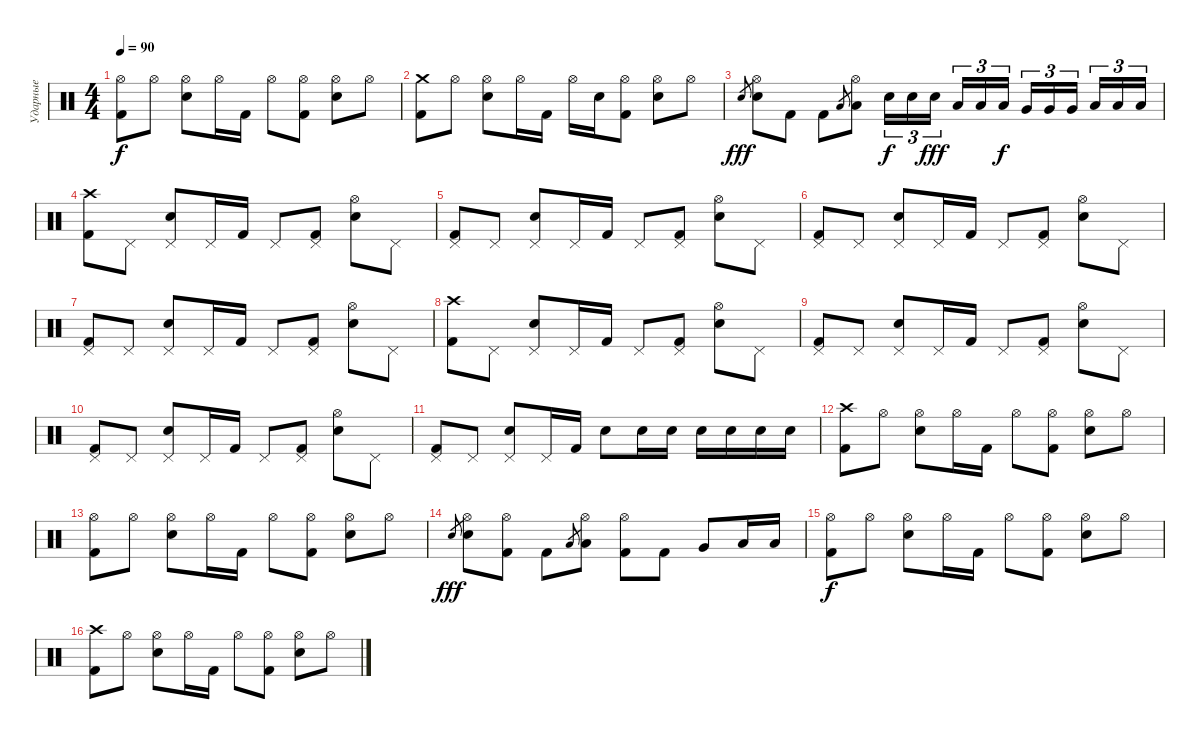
\track ("Ударные" "Ударные") {instrument percussion}
\staff {score}
\articulation defaults
\ts (4 4)
\tempo 90
\clef neutral
\ks c
("Hi-Hat (open)" "Kick (hit) 2").8{dy f} "Hi-Hat (open)".8 ("Hi-Hat (open)" "Snare (hit) 2").8 "Hi-Hat (open)".16 "Kick (hit) 2".16 "Hi-Hat (open)".8 ("Hi-Hat (open)" "Kick (hit) 2").8 ("Hi-Hat (open)" "Snare (hit) 2").8 "Hi-Hat (open)".8 |
("Crash medium (hit)" "Kick (hit) 2").8 "Hi-Hat (open)".8 ("Hi-Hat (open)" "Snare (hit) 2").8 "Hi-Hat (open)".16 "Kick (hit) 2".16 "Hi-Hat (open)".16 "Snare (hit) 2".16 ("Hi-Hat (open)" "Kick (hit) 2").8 ("Hi-Hat (open)" "Snare (hit) 2").8 "Hi-Hat (open)".8 |
"Snare (hit) 2".8{gr dy fff} ("Hi-Hat (open)" "Snare (hit) 2").8 "Kick (hit) 2".8 "Kick (hit) 2".8 "Low Tom (hit)".8{gr} ("Hi-Hat (open)" "Low Tom (hit)").8 "Snare (hit) 2".16{tu (3 2) dy f} "Snare (hit) 2".16{tu (3 2)} "Snare (hit) 2".16{tu (3 2) dy fff beam splitsecondary} "Low Tom (hit)".16{tu (3 2)} "Low Tom (hit)".16{tu (3 2)} "Low Tom (hit)".16{tu (3 2) dy f} "Very Low Tom (hit)".16{tu (3 2)} "Very Low Tom (hit)".16{tu (3 2)} "Very Low Tom (hit)".16{tu (3 2) beam splitsecondary} "Low Floor Tom (hit)".16{tu (3 2)} "Low Floor Tom (hit)".16{tu (3 2)} "Low Floor Tom (hit)".16{tu (3 2)} |
("Crash high (hit)" "Kick (hit) 2").8 "Pedal Hi-Hat (hit)".8 ("Pedal Hi-Hat (hit)" "Snare (hit) 2").8 "Pedal Hi-Hat (hit)".16 "Kick (hit) 2".16 "Pedal Hi-Hat (hit)".8 ("Pedal Hi-Hat (hit)" "Kick (hit) 2").8 ("Hi-Hat (open)" "Snare (hit) 2").8 "Pedal Hi-Hat (hit)".8 |
("Pedal Hi-Hat (hit)" "Kick (hit) 2").8 "Pedal Hi-Hat (hit)".8 ("Pedal Hi-Hat (hit)" "Snare (hit) 2").8 "Pedal Hi-Hat (hit)".16 "Kick (hit) 2".16 "Pedal Hi-Hat (hit)".8 ("Pedal Hi-Hat (hit)" "Kick (hit) 2").8 ("Hi-Hat (open)" "Snare (hit) 2").8 "Pedal Hi-Hat (hit)".8 |
("Pedal Hi-Hat (hit)" "Kick (hit) 2").8 "Pedal Hi-Hat (hit)".8 ("Pedal Hi-Hat (hit)" "Snare (hit) 2").8 "Pedal Hi-Hat (hit)".16 "Kick (hit) 2".16 "Pedal Hi-Hat (hit)".8 ("Pedal Hi-Hat (hit)" "Kick (hit) 2").8 ("Hi-Hat (open)" "Snare (hit) 2").8 "Pedal Hi-Hat (hit)".8 |
("Pedal Hi-Hat (hit)" "Kick (hit) 2").8 "Pedal Hi-Hat (hit)".8 ("Pedal Hi-Hat (hit)" "Snare (hit) 2").8 "Pedal Hi-Hat (hit)".16 "Kick (hit) 2".16 "Pedal Hi-Hat (hit)".8 ("Pedal Hi-Hat (hit)" "Kick (hit) 2").8 ("Hi-Hat (open)" "Snare (hit) 2").8 "Pedal Hi-Hat (hit)".8 |
("Crash high (hit)" "Kick (hit) 2").8 "Pedal Hi-Hat (hit)".8 ("Pedal Hi-Hat (hit)" "Snare (hit) 2").8 "Pedal Hi-Hat (hit)".16 "Kick (hit) 2".16 "Pedal Hi-Hat (hit)".8 ("Pedal Hi-Hat (hit)" "Kick (hit) 2").8 ("Hi-Hat (open)" "Snare (hit) 2").8 "Pedal Hi-Hat (hit)".8 |
("Pedal Hi-Hat (hit)" "Kick (hit) 2").8 "Pedal Hi-Hat (hit)".8 ("Pedal Hi-Hat (hit)" "Snare (hit) 2").8 "Pedal Hi-Hat (hit)".16 "Kick (hit) 2".16 "Pedal Hi-Hat (hit)".8 ("Pedal Hi-Hat (hit)" "Kick (hit) 2").8 ("Hi-Hat (open)" "Snare (hit) 2").8 "Pedal Hi-Hat (hit)".8 |
("Pedal Hi-Hat (hit)" "Kick (hit) 2").8 "Pedal Hi-Hat (hit)".8 ("Pedal Hi-Hat (hit)" "Snare (hit) 2").8 "Pedal Hi-Hat (hit)".16 "Kick (hit) 2".16 "Pedal Hi-Hat (hit)".8 ("Pedal Hi-Hat (hit)" "Kick (hit) 2").8 ("Hi-Hat (open)" "Snare (hit) 2").8 "Pedal Hi-Hat (hit)".8 |
("Pedal Hi-Hat (hit)" "Kick (hit) 2").8 "Pedal Hi-Hat (hit)".8 ("Pedal Hi-Hat (hit)" "Snare (hit) 2").8 "Pedal Hi-Hat (hit)".16 "Kick (hit) 2".16 "Snare (hit) 2".8 "Snare (hit) 2".16 "Snare (hit) 2".16 "Snare (hit) 2".16 "Snare (hit) 2".16 "Snare (hit) 2".16 "Snare (hit) 2".16 |
("Crash high (hit)" "Kick (hit) 2").8 "Hi-Hat (open)".8 ("Hi-Hat (open)" "Snare (hit) 2").8 "Hi-Hat (open)".16 "Kick (hit) 2".16 "Hi-Hat (open)".8 ("Hi-Hat (open)" "Kick (hit) 2").8 ("Hi-Hat (open)" "Snare (hit) 2").8 "Hi-Hat (open)".8 |
("Hi-Hat (open)" "Kick (hit) 2").8 "Hi-Hat (open)".8 ("Hi-Hat (open)" "Snare (hit) 2").8 "Hi-Hat (open)".16 "Kick (hit) 2".16 "Hi-Hat (open)".8 ("Hi-Hat (open)" "Kick (hit) 2").8 ("Hi-Hat (open)" "Snare (hit) 2").8 "Hi-Hat (open)".8 |
"Snare (hit) 2".8{gr dy fff} ("Hi-Hat (open)" "Snare (hit) 2").8 ("Hi-Hat (open)" "Kick (hit) 2").8 "Kick (hit) 2".8 "Low Tom (hit)".8{gr} ("Hi-Hat (open)" "Low Tom (hit)").8 ("Hi-Hat (open)" "Kick (hit) 2").8 "Kick (hit) 2".8 "Very Low Tom (hit)".8 "Low Floor Tom (hit)".16 "Low Floor Tom (hit)".16 |
("Hi-Hat (open)" "Kick (hit) 2").8{dy f} "Hi-Hat (open)".8 ("Hi-Hat (open)" "Snare (hit) 2").8 "Hi-Hat (open)".16 "Kick (hit) 2".16 "Hi-Hat (open)".8 ("Hi-Hat (open)" "Kick (hit) 2").8 ("Hi-Hat (open)" "Snare (hit) 2").8 "Hi-Hat (open)".8 |
("Crash high (hit)" "Kick (hit) 2").8 "Hi-Hat (open)".8 ("Hi-Hat (open)" "Snare (hit) 2").8 "Hi-Hat (open)".16 "Kick (hit) 2".16 "Hi-Hat (open)".8 ("Hi-Hat (open)" "Kick (hit) 2").8 ("Hi-Hat (open)" "Snare (hit) 2").8 "Hi-Hat (open)".8
